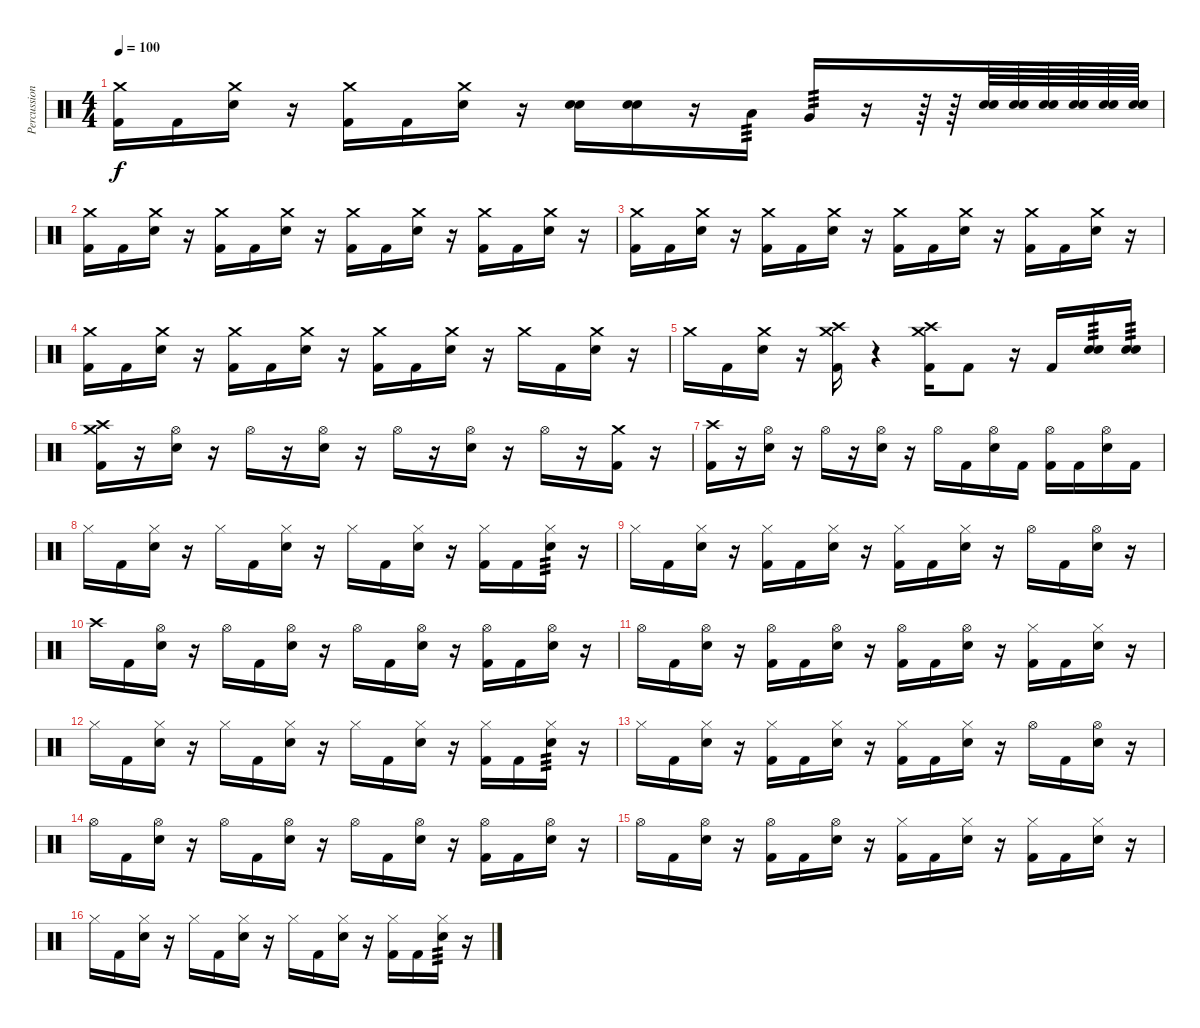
\track ("Percussion" "Percussion") {instrument percussion}
\staff {score}
\articulation defaults
\ts (4 4)
\tempo 100
\clef neutral
\ks c
("Crash medium (hit)" "Kick (hit) 2").16{dy f} "Kick (hit) 2".16 ("Crash medium (hit)" "Electric Snare (hit)").16 r.16 ("Crash medium (hit)" "Kick (hit) 2").16 "Kick (hit) 2".16 ("Crash medium (hit)" "Electric Snare (hit)").16 r.16 ("Electric Snare (hit)" "Electric Snare (hit)").16 ("Electric Snare (hit)" "Electric Snare (hit)").16 r.16 "Low Tom (hit)".16{tp 3} "Very Low Tom (hit)".16{tp 3} r.16 r.64 r.64 ("Electric Snare (hit)" "Electric Snare (hit)").64 ("Electric Snare (hit)" "Electric Snare (hit)").64 ("Electric Snare (hit)" "Electric Snare (hit)").64 ("Electric Snare (hit)" "Electric Snare (hit)").64 ("Electric Snare (hit)" "Electric Snare (hit)").64 ("Electric Snare (hit)" "Electric Snare (hit)").64 |
("Crash medium (hit)" "Kick (hit) 2").16 "Kick (hit) 2".16 ("Crash medium (hit)" "Electric Snare (hit)").16 r.16 ("Crash medium (hit)" "Kick (hit) 2").16 "Kick (hit) 2".16 ("Crash medium (hit)" "Electric Snare (hit)").16 r.16 ("Crash medium (hit)" "Kick (hit) 2").16 "Kick (hit) 2".16 ("Crash medium (hit)" "Electric Snare (hit)").16 r.16 ("Crash medium (hit)" "Kick (hit) 2").16 "Kick (hit) 2".16 ("Crash medium (hit)" "Electric Snare (hit)").16 r.16 |
("Crash medium (hit)" "Kick (hit) 2").16 "Kick (hit) 2".16 ("Crash medium (hit)" "Electric Snare (hit)").16 r.16 ("Crash medium (hit)" "Kick (hit) 2").16 "Kick (hit) 2".16 ("Crash medium (hit)" "Electric Snare (hit)").16 r.16 ("Crash medium (hit)" "Kick (hit) 2").16 "Kick (hit) 2".16 ("Crash medium (hit)" "Electric Snare (hit)").16 r.16 ("Crash medium (hit)" "Kick (hit) 2").16 "Kick (hit) 2".16 ("Crash medium (hit)" "Electric Snare (hit)").16 r.16 |
("Crash medium (hit)" "Kick (hit) 2").16 "Kick (hit) 2".16 ("Crash medium (hit)" "Electric Snare (hit)").16 r.16 ("Crash medium (hit)" "Kick (hit) 2").16 "Kick (hit) 2".16 ("Crash medium (hit)" "Electric Snare (hit)").16 r.16 ("Crash medium (hit)" "Kick (hit) 2").16 "Kick (hit) 2".16 ("Crash medium (hit)" "Electric Snare (hit)").16 r.16 "Crash medium (hit)".16 "Kick (hit) 2".16 ("Crash medium (hit)" "Electric Snare (hit)").16 r.16 |
"Crash medium (hit)".16 "Kick (hit) 2".16 ("Crash medium (hit)" "Electric Snare (hit)").16 r.16 ("Crash high (hit)" "Crash medium (hit)" "Kick (hit) 2").16 r.4 ("Crash high (hit)" "Crash medium (hit)" "Kick (hit) 2").16 "Kick (hit) 2".8 r.16 "Kick (hit) 2".16 ("Electric Snare (hit)" "Electric Snare (hit)").16{tp 3} ("Electric Snare (hit)" "Electric Snare (hit)").16{tp 3} |
("Crash high (hit)" "Crash medium (hit)" "Kick (hit) 2").16 r.16 ("Hi-Hat (open)" "Electric Snare (hit)").16 r.16 "Hi-Hat (open)".16 r.16 ("Hi-Hat (open)" "Electric Snare (hit)").16 r.16 "Hi-Hat (open)".16 r.16 ("Hi-Hat (open)" "Electric Snare (hit)").16 r.16 "Hi-Hat (open)".16 r.16 ("Crash medium (hit)" "Kick (hit) 2").16 r.16 |
("Crash high (hit)" "Kick (hit) 2").16 r.16 ("Hi-Hat (open)" "Electric Snare (hit)").16 r.16 "Hi-Hat (open)".16 r.16 ("Hi-Hat (open)" "Electric Snare (hit)").16 r.16 "Hi-Hat (open)".16 "Kick (hit) 2".16 ("Hi-Hat (open)" "Electric Snare (hit)").16 "Kick (hit) 2".16 ("Hi-Hat (open)" "Kick (hit) 2").16 "Kick (hit) 2".16 ("Hi-Hat (open)" "Electric Snare (hit)").16 "Kick (hit) 2".16 |
"Hi-Hat (closed)".16 "Kick (hit) 2".16 ("Hi-Hat (closed)" "Electric Snare (hit)").16 r.16 "Hi-Hat (closed)".16 "Kick (hit) 2".16 ("Hi-Hat (closed)" "Electric Snare (hit)").16 r.16 "Hi-Hat (closed)".16 "Kick (hit) 2".16 ("Hi-Hat (closed)" "Electric Snare (hit)").16 r.16 ("Hi-Hat (closed)" "Kick (hit) 2").16 "Kick (hit) 2".16 ("Hi-Hat (closed)" "Electric Snare (hit)").16{tp 3} r.16 |
"Hi-Hat (closed)".16 "Kick (hit) 2".16 ("Hi-Hat (closed)" "Electric Snare (hit)").16 r.16 ("Hi-Hat (closed)" "Kick (hit) 2").16 "Kick (hit) 2".16 ("Hi-Hat (closed)" "Electric Snare (hit)").16 r.16 ("Hi-Hat (closed)" "Kick (hit) 2").16 "Kick (hit) 2".16 ("Hi-Hat (closed)" "Electric Snare (hit)").16 r.16 "Hi-Hat (open)".16 "Kick (hit) 2".16 ("Hi-Hat (open)" "Electric Snare (hit)").16 r.16 |
"Crash high (hit)".16 "Kick (hit) 2".16 ("Hi-Hat (open)" "Electric Snare (hit)").16 r.16 "Hi-Hat (open)".16 "Kick (hit) 2".16 ("Hi-Hat (open)" "Electric Snare (hit)").16 r.16 "Hi-Hat (open)".16 "Kick (hit) 2".16 ("Hi-Hat (open)" "Electric Snare (hit)").16 r.16 ("Hi-Hat (open)" "Kick (hit) 2").16 "Kick (hit) 2".16 ("Hi-Hat (open)" "Electric Snare (hit)").16 r.16 |
"Hi-Hat (open)".16 "Kick (hit) 2".16 ("Hi-Hat (open)" "Electric Snare (hit)").16 r.16 ("Hi-Hat (open)" "Kick (hit) 2").16 "Kick (hit) 2".16 ("Hi-Hat (open)" "Electric Snare (hit)").16 r.16 ("Hi-Hat (open)" "Kick (hit) 2").16 "Kick (hit) 2".16 ("Hi-Hat (open)" "Electric Snare (hit)").16 r.16 ("Hi-Hat (closed)" "Kick (hit) 2").16 "Kick (hit) 2".16 ("Hi-Hat (closed)" "Electric Snare (hit)").16 r.16 |
"Hi-Hat (closed)".16 "Kick (hit) 2".16 ("Hi-Hat (closed)" "Electric Snare (hit)").16 r.16 "Hi-Hat (closed)".16 "Kick (hit) 2".16 ("Hi-Hat (closed)" "Electric Snare (hit)").16 r.16 "Hi-Hat (closed)".16 "Kick (hit) 2".16 ("Hi-Hat (closed)" "Electric Snare (hit)").16 r.16 ("Hi-Hat (closed)" "Kick (hit) 2").16 "Kick (hit) 2".16 ("Hi-Hat (closed)" "Electric Snare (hit)").16{tp 3} r.16 |
"Hi-Hat (closed)".16 "Kick (hit) 2".16 ("Hi-Hat (closed)" "Electric Snare (hit)").16 r.16 ("Hi-Hat (closed)" "Kick (hit) 2").16 "Kick (hit) 2".16 ("Hi-Hat (closed)" "Electric Snare (hit)").16 r.16 ("Hi-Hat (closed)" "Kick (hit) 2").16 "Kick (hit) 2".16 ("Hi-Hat (closed)" "Electric Snare (hit)").16 r.16 "Hi-Hat (open)".16 "Kick (hit) 2".16 ("Hi-Hat (open)" "Electric Snare (hit)").16 r.16 |
"Hi-Hat (open)".16 "Kick (hit) 2".16 ("Hi-Hat (open)" "Electric Snare (hit)").16 r.16 "Hi-Hat (open)".16 "Kick (hit) 2".16 ("Hi-Hat (open)" "Electric Snare (hit)").16 r.16 "Hi-Hat (open)".16 "Kick (hit) 2".16 ("Hi-Hat (open)" "Electric Snare (hit)").16 r.16 ("Hi-Hat (open)" "Kick (hit) 2").16 "Kick (hit) 2".16 ("Hi-Hat (open)" "Electric Snare (hit)").16 r.16 |
"Hi-Hat (open)".16 "Kick (hit) 2".16 ("Hi-Hat (open)" "Electric Snare (hit)").16 r.16 ("Hi-Hat (open)" "Kick (hit) 2").16 "Kick (hit) 2".16 ("Hi-Hat (open)" "Electric Snare (hit)").16 r.16 ("Hi-Hat (closed)" "Kick (hit) 2").16 "Kick (hit) 2".16 ("Hi-Hat (closed)" "Electric Snare (hit)").16 r.16 ("Hi-Hat (closed)" "Kick (hit) 2").16 "Kick (hit) 2".16 ("Hi-Hat (closed)" "Electric Snare (hit)").16 r.16 |
"Hi-Hat (closed)".16 "Kick (hit) 2".16 ("Hi-Hat (closed)" "Electric Snare (hit)").16 r.16 "Hi-Hat (closed)".16 "Kick (hit) 2".16 ("Hi-Hat (closed)" "Electric Snare (hit)").16 r.16 "Hi-Hat (closed)".16 "Kick (hit) 2".16 ("Hi-Hat (closed)" "Electric Snare (hit)").16 r.16 ("Hi-Hat (closed)" "Kick (hit) 2").16 "Kick (hit) 2".16 ("Hi-Hat (closed)" "Electric Snare (hit)").16{tp 3} r.16
